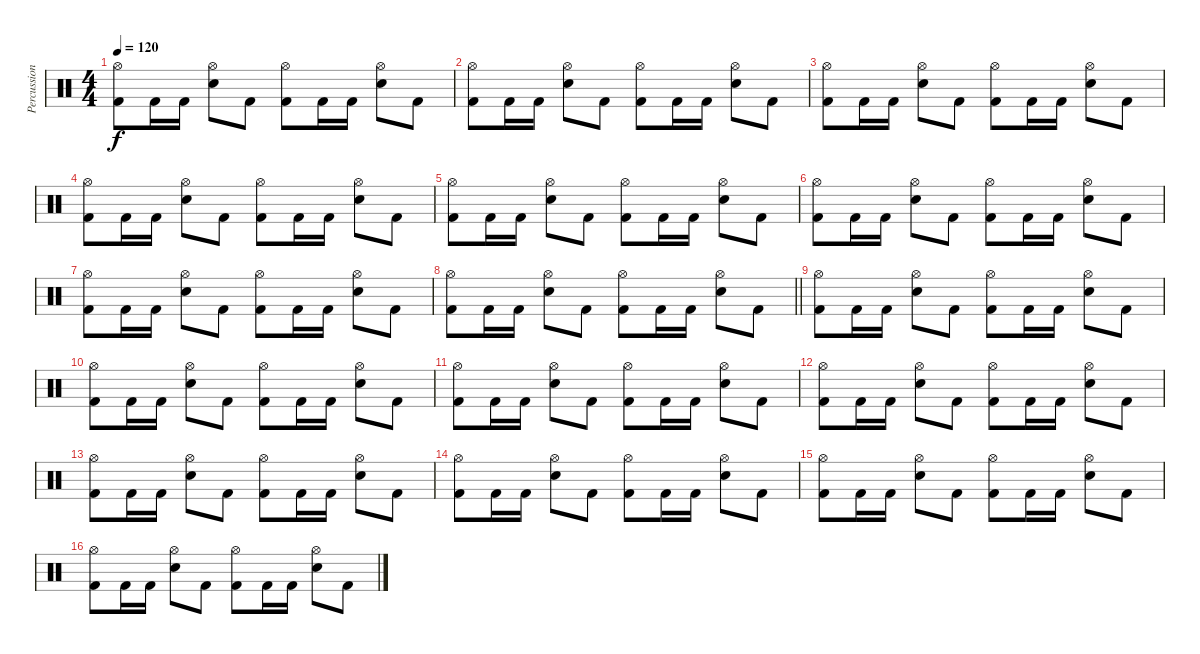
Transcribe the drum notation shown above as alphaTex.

\track ("Percussion" "Percussion") {instrument percussion}
\staff {score}
\articulation defaults
\ts (4 4)
\tempo 120
\clef neutral
\ks c
("Hi-Hat (open)" "Kick (hit) 2").8{dy f} "Kick (hit) 2".16 "Kick (hit) 2".16 ("Hi-Hat (open)" "Electric Snare (hit)").8 "Kick (hit) 2".8 ("Hi-Hat (open)" "Kick (hit) 2").8 "Kick (hit) 2".16 "Kick (hit) 2".16 ("Hi-Hat (open)" "Electric Snare (hit)").8 "Kick (hit) 2".8 |
("Hi-Hat (open)" "Kick (hit) 2").8 "Kick (hit) 2".16 "Kick (hit) 2".16 ("Hi-Hat (open)" "Electric Snare (hit)").8 "Kick (hit) 2".8 ("Hi-Hat (open)" "Kick (hit) 2").8 "Kick (hit) 2".16 "Kick (hit) 2".16 ("Hi-Hat (open)" "Electric Snare (hit)").8 "Kick (hit) 2".8 |
("Hi-Hat (open)" "Kick (hit) 2").8 "Kick (hit) 2".16 "Kick (hit) 2".16 ("Hi-Hat (open)" "Electric Snare (hit)").8 "Kick (hit) 2".8 ("Hi-Hat (open)" "Kick (hit) 2").8 "Kick (hit) 2".16 "Kick (hit) 2".16 ("Hi-Hat (open)" "Electric Snare (hit)").8 "Kick (hit) 2".8 |
("Hi-Hat (open)" "Kick (hit) 2").8 "Kick (hit) 2".16 "Kick (hit) 2".16 ("Hi-Hat (open)" "Electric Snare (hit)").8 "Kick (hit) 2".8 ("Hi-Hat (open)" "Kick (hit) 2").8 "Kick (hit) 2".16 "Kick (hit) 2".16 ("Hi-Hat (open)" "Electric Snare (hit)").8 "Kick (hit) 2".8 |
("Hi-Hat (open)" "Kick (hit) 2").8 "Kick (hit) 2".16 "Kick (hit) 2".16 ("Hi-Hat (open)" "Electric Snare (hit)").8 "Kick (hit) 2".8 ("Hi-Hat (open)" "Kick (hit) 2").8 "Kick (hit) 2".16 "Kick (hit) 2".16 ("Hi-Hat (open)" "Electric Snare (hit)").8 "Kick (hit) 2".8 |
("Hi-Hat (open)" "Kick (hit) 2").8 "Kick (hit) 2".16 "Kick (hit) 2".16 ("Hi-Hat (open)" "Electric Snare (hit)").8 "Kick (hit) 2".8 ("Hi-Hat (open)" "Kick (hit) 2").8 "Kick (hit) 2".16 "Kick (hit) 2".16 ("Hi-Hat (open)" "Electric Snare (hit)").8 "Kick (hit) 2".8 |
("Hi-Hat (open)" "Kick (hit) 2").8 "Kick (hit) 2".16 "Kick (hit) 2".16 ("Hi-Hat (open)" "Electric Snare (hit)").8 "Kick (hit) 2".8 ("Hi-Hat (open)" "Kick (hit) 2").8 "Kick (hit) 2".16 "Kick (hit) 2".16 ("Hi-Hat (open)" "Electric Snare (hit)").8 "Kick (hit) 2".8 |
\barLineRight lightlight
("Hi-Hat (open)" "Kick (hit) 2").8 "Kick (hit) 2".16 "Kick (hit) 2".16 ("Hi-Hat (open)" "Electric Snare (hit)").8 "Kick (hit) 2".8 ("Hi-Hat (open)" "Kick (hit) 2").8 "Kick (hit) 2".16 "Kick (hit) 2".16 ("Hi-Hat (open)" "Electric Snare (hit)").8 "Kick (hit) 2".8 |
("Hi-Hat (open)" "Kick (hit) 2").8 "Kick (hit) 2".16 "Kick (hit) 2".16 ("Hi-Hat (open)" "Electric Snare (hit)").8 "Kick (hit) 2".8 ("Hi-Hat (open)" "Kick (hit) 2").8 "Kick (hit) 2".16 "Kick (hit) 2".16 ("Hi-Hat (open)" "Electric Snare (hit)").8 "Kick (hit) 2".8 |
("Hi-Hat (open)" "Kick (hit) 2").8 "Kick (hit) 2".16 "Kick (hit) 2".16 ("Hi-Hat (open)" "Electric Snare (hit)").8 "Kick (hit) 2".8 ("Hi-Hat (open)" "Kick (hit) 2").8 "Kick (hit) 2".16 "Kick (hit) 2".16 ("Hi-Hat (open)" "Electric Snare (hit)").8 "Kick (hit) 2".8 |
("Hi-Hat (open)" "Kick (hit) 2").8 "Kick (hit) 2".16 "Kick (hit) 2".16 ("Hi-Hat (open)" "Electric Snare (hit)").8 "Kick (hit) 2".8 ("Hi-Hat (open)" "Kick (hit) 2").8 "Kick (hit) 2".16 "Kick (hit) 2".16 ("Hi-Hat (open)" "Electric Snare (hit)").8 "Kick (hit) 2".8 |
("Hi-Hat (open)" "Kick (hit) 2").8 "Kick (hit) 2".16 "Kick (hit) 2".16 ("Hi-Hat (open)" "Electric Snare (hit)").8 "Kick (hit) 2".8 ("Hi-Hat (open)" "Kick (hit) 2").8 "Kick (hit) 2".16 "Kick (hit) 2".16 ("Hi-Hat (open)" "Electric Snare (hit)").8 "Kick (hit) 2".8 |
("Hi-Hat (open)" "Kick (hit) 2").8 "Kick (hit) 2".16 "Kick (hit) 2".16 ("Hi-Hat (open)" "Electric Snare (hit)").8 "Kick (hit) 2".8 ("Hi-Hat (open)" "Kick (hit) 2").8 "Kick (hit) 2".16 "Kick (hit) 2".16 ("Hi-Hat (open)" "Electric Snare (hit)").8 "Kick (hit) 2".8 |
("Hi-Hat (open)" "Kick (hit) 2").8 "Kick (hit) 2".16 "Kick (hit) 2".16 ("Hi-Hat (open)" "Electric Snare (hit)").8 "Kick (hit) 2".8 ("Hi-Hat (open)" "Kick (hit) 2").8 "Kick (hit) 2".16 "Kick (hit) 2".16 ("Hi-Hat (open)" "Electric Snare (hit)").8 "Kick (hit) 2".8 |
("Hi-Hat (open)" "Kick (hit) 2").8 "Kick (hit) 2".16 "Kick (hit) 2".16 ("Hi-Hat (open)" "Electric Snare (hit)").8 "Kick (hit) 2".8 ("Hi-Hat (open)" "Kick (hit) 2").8 "Kick (hit) 2".16 "Kick (hit) 2".16 ("Hi-Hat (open)" "Electric Snare (hit)").8 "Kick (hit) 2".8 |
("Hi-Hat (open)" "Kick (hit) 2").8 "Kick (hit) 2".16 "Kick (hit) 2".16 ("Hi-Hat (open)" "Electric Snare (hit)").8 "Kick (hit) 2".8 ("Hi-Hat (open)" "Kick (hit) 2").8 "Kick (hit) 2".16 "Kick (hit) 2".16 ("Hi-Hat (open)" "Electric Snare (hit)").8 "Kick (hit) 2".8
